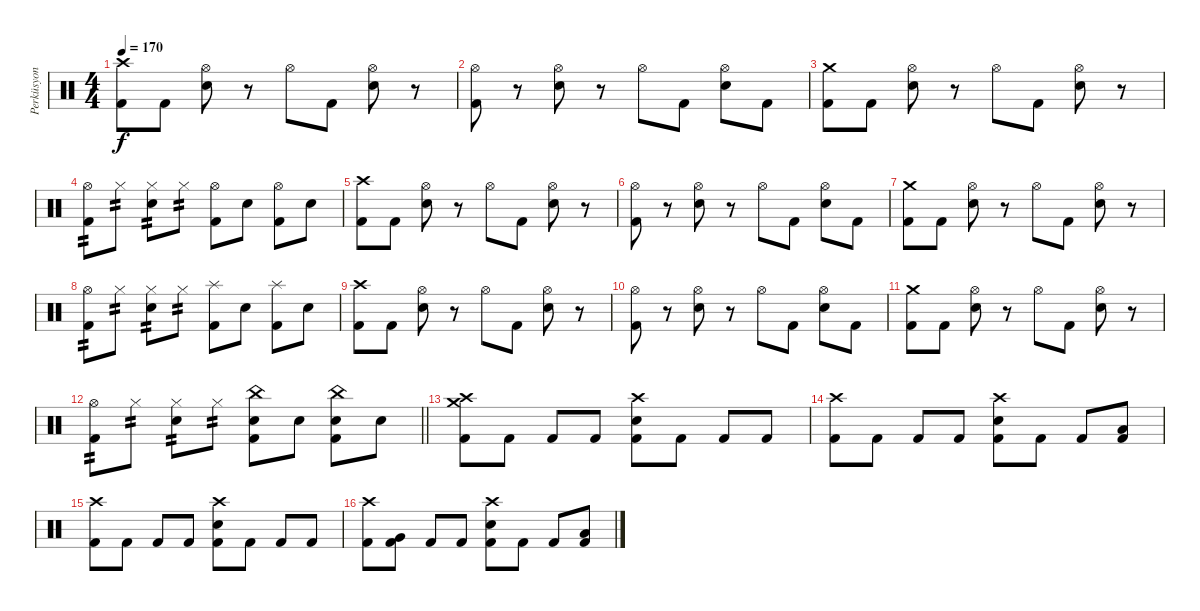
\track ("Perküsyon" "Perküsyon") {instrument percussion}
\staff {score}
\articulation defaults
\ts (4 4)
\tempo 170
\clef neutral
\ks c
("Crash high (hit)" "Kick (hit) 2").8{dy f} "Kick (hit) 2".8 ("Hi-Hat (open)" "Snare (hit) 2").8 r.8 "Hi-Hat (open)".8 "Kick (hit) 2".8 ("Hi-Hat (open)" "Snare (hit) 2").8 r.8 |
("Hi-Hat (open)" "Kick (hit) 2").8 r.8 ("Hi-Hat (open)" "Snare (hit) 2").8 r.8 "Hi-Hat (open)".8 "Kick (hit) 2".8 ("Hi-Hat (open)" "Snare (hit) 2").8 "Kick (hit) 2".8 |
("Crash medium (hit)" "Kick (hit) 2").8 "Kick (hit) 2".8 ("Hi-Hat (open)" "Snare (hit) 2").8 r.8 "Hi-Hat (open)".8 "Kick (hit) 2".8 ("Hi-Hat (open)" "Snare (hit) 2").8 r.8 |
("Hi-Hat (open)" "Kick (hit) 2").8{tp 2} "Hi-Hat (closed)".8{tp 2} ("Hi-Hat (closed)" "Snare (hit) 2").8{tp 2} "Hi-Hat (closed)".8{tp 2} ("Hi-Hat (open)" "Kick (hit) 2").8 "Snare (hit) 2".8 ("Hi-Hat (open)" "Kick (hit) 2").8 "Snare (hit) 2".8 |
("Crash high (hit)" "Kick (hit) 2").8 "Kick (hit) 2".8 ("Hi-Hat (open)" "Snare (hit) 2").8 r.8 "Hi-Hat (open)".8 "Kick (hit) 2".8 ("Hi-Hat (open)" "Snare (hit) 2").8 r.8 |
("Hi-Hat (open)" "Kick (hit) 2").8 r.8 ("Hi-Hat (open)" "Snare (hit) 2").8 r.8 "Hi-Hat (open)".8 "Kick (hit) 2".8 ("Hi-Hat (open)" "Snare (hit) 2").8 "Kick (hit) 2".8 |
("Crash medium (hit)" "Kick (hit) 2").8 "Kick (hit) 2".8 ("Hi-Hat (open)" "Snare (hit) 2").8 r.8 "Hi-Hat (open)".8 "Kick (hit) 2".8 ("Hi-Hat (open)" "Snare (hit) 2").8 r.8 |
("Hi-Hat (open)" "Kick (hit) 2").8{tp 2} "Hi-Hat (closed)".8{tp 2} ("Hi-Hat (closed)" "Snare (hit) 2").8{tp 2} "Hi-Hat (closed)".8{tp 2} ("Splash (hit)" "Kick (hit) 2").8 "Snare (hit) 2".8 ("Splash (hit)" "Kick (hit) 2").8 "Snare (hit) 2".8 |
("Crash high (hit)" "Kick (hit) 2").8 "Kick (hit) 2".8 ("Hi-Hat (open)" "Snare (hit) 2").8 r.8 "Hi-Hat (open)".8 "Kick (hit) 2".8 ("Hi-Hat (open)" "Snare (hit) 2").8 r.8 |
("Hi-Hat (open)" "Kick (hit) 2").8 r.8 ("Hi-Hat (open)" "Snare (hit) 2").8 r.8 "Hi-Hat (open)".8 "Kick (hit) 2".8 ("Hi-Hat (open)" "Snare (hit) 2").8 "Kick (hit) 2".8 |
("Crash medium (hit)" "Kick (hit) 2").8 "Kick (hit) 2".8 ("Hi-Hat (open)" "Snare (hit) 2").8 r.8 "Hi-Hat (open)".8 "Kick (hit) 2".8 ("Hi-Hat (open)" "Snare (hit) 2").8 r.8 |
\barLineRight lightlight
("Hi-Hat (open)" "Kick (hit) 2").8{tp 2} "Hi-Hat (closed)".8{tp 2} ("Hi-Hat (closed)" "Snare (hit) 2").8{tp 2} "Hi-Hat (closed)".8{tp 2} ("China (hit)" "Snare (hit) 2" "Kick (hit) 2").8 "Snare (hit) 2".8 ("China (hit)" "Snare (hit) 2" "Kick (hit) 2").8 "Snare (hit) 2".8 |
("Crash high (hit)" "Crash medium (hit)" "Kick (hit) 2").8 "Kick (hit) 2".8 "Kick (hit) 2".8 "Kick (hit) 2".8 ("Crash high (hit)" "Snare (hit) 2" "Kick (hit) 2").8 "Kick (hit) 2".8 "Kick (hit) 2".8 "Kick (hit) 2".8 |
("Crash high (hit)" "Kick (hit) 2").8 "Kick (hit) 2".8 "Kick (hit) 2".8 "Kick (hit) 2".8 ("Crash high (hit)" "Snare (hit) 2" "Kick (hit) 2").8 "Kick (hit) 2".8 "Kick (hit) 2".8 ("Low Floor Tom (hit)" "Kick (hit) 2").8 |
("Crash high (hit)" "Kick (hit) 2").8 "Kick (hit) 2".8 "Kick (hit) 2".8 "Kick (hit) 2".8 ("Crash high (hit)" "Snare (hit) 2" "Kick (hit) 2").8 "Kick (hit) 2".8 "Kick (hit) 2".8 "Kick (hit) 2".8 |
("Crash high (hit)" "Kick (hit) 2").8 ("Very Low Tom (hit)" "Kick (hit) 2").8 "Kick (hit) 2".8 "Kick (hit) 2".8 ("Crash high (hit)" "Snare (hit) 2" "Kick (hit) 2").8 "Kick (hit) 2".8 "Kick (hit) 2".8 ("Low Tom (hit)" "Kick (hit) 2").8
